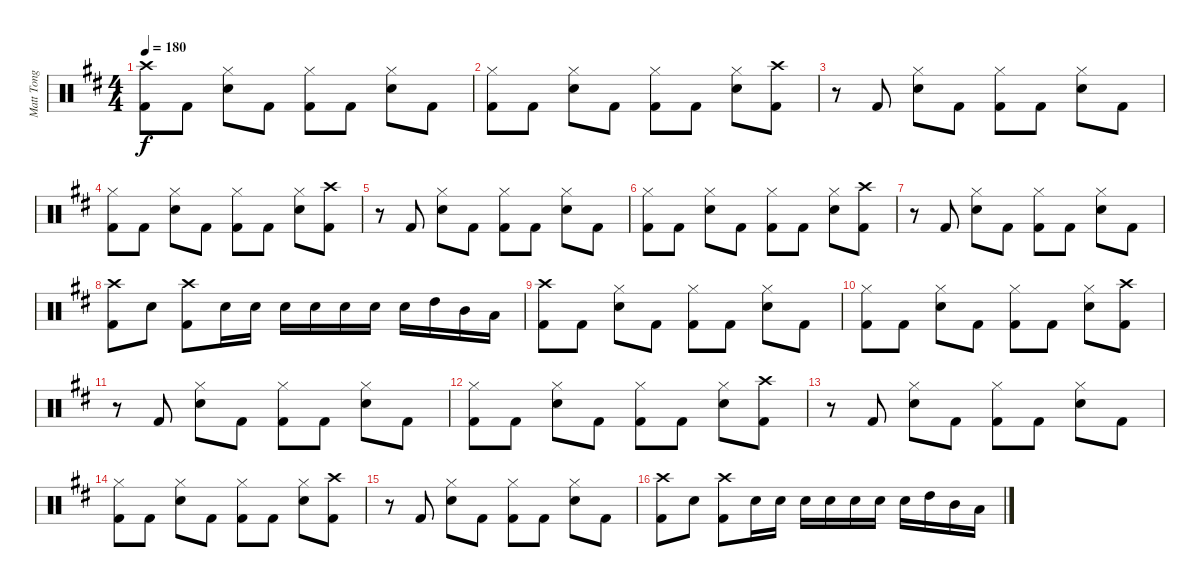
\track ("Matt Tong" "Matt Tong") {instrument percussion}
\staff {score}
\articulation defaults
\ts (4 4)
\tempo 180
\clef neutral
\ks d
("Crash high (hit)" "Kick (hit) 2").8{dy f} "Kick (hit) 2".8 ("Hi-Hat (closed)" "Electric Snare (hit)").8 "Kick (hit) 2".8 ("Hi-Hat (closed)" "Kick (hit) 2").8 "Kick (hit) 2".8 ("Hi-Hat (closed)" "Electric Snare (hit)").8 "Kick (hit) 2".8 |
("Hi-Hat (closed)" "Kick (hit) 2").8 "Kick (hit) 2".8 ("Hi-Hat (closed)" "Electric Snare (hit)").8 "Kick (hit) 2".8 ("Hi-Hat (closed)" "Kick (hit) 2").8 "Kick (hit) 2".8 ("Hi-Hat (closed)" "Electric Snare (hit)").8 ("Crash high (hit)" "Kick (hit) 2").8 |
r.8 "Kick (hit) 2".8 ("Hi-Hat (closed)" "Electric Snare (hit)").8 "Kick (hit) 2".8 ("Hi-Hat (closed)" "Kick (hit) 2").8 "Kick (hit) 2".8 ("Hi-Hat (closed)" "Electric Snare (hit)").8 "Kick (hit) 2".8 |
("Hi-Hat (closed)" "Kick (hit) 2").8 "Kick (hit) 2".8 ("Hi-Hat (closed)" "Electric Snare (hit)").8 "Kick (hit) 2".8 ("Hi-Hat (closed)" "Kick (hit) 2").8 "Kick (hit) 2".8 ("Hi-Hat (closed)" "Electric Snare (hit)").8 ("Crash high (hit)" "Kick (hit) 2").8 |
r.8 "Kick (hit) 2".8 ("Hi-Hat (closed)" "Electric Snare (hit)").8 "Kick (hit) 2".8 ("Hi-Hat (closed)" "Kick (hit) 2").8 "Kick (hit) 2".8 ("Hi-Hat (closed)" "Electric Snare (hit)").8 "Kick (hit) 2".8 |
("Hi-Hat (closed)" "Kick (hit) 2").8 "Kick (hit) 2".8 ("Hi-Hat (closed)" "Electric Snare (hit)").8 "Kick (hit) 2".8 ("Hi-Hat (closed)" "Kick (hit) 2").8 "Kick (hit) 2".8 ("Hi-Hat (closed)" "Electric Snare (hit)").8 ("Crash high (hit)" "Kick (hit) 2").8 |
r.8 "Kick (hit) 2".8 ("Hi-Hat (closed)" "Electric Snare (hit)").8 "Kick (hit) 2".8 ("Hi-Hat (closed)" "Kick (hit) 2").8 "Kick (hit) 2".8 ("Hi-Hat (closed)" "Electric Snare (hit)").8 "Kick (hit) 2".8 |
("Crash high (hit)" "Kick (hit) 2").8 "Electric Snare (hit)".8 ("Crash high (hit)" "Kick (hit) 2").8 "Electric Snare (hit)".16 "Electric Snare (hit)".16 "Electric Snare (hit)".16 "Electric Snare (hit)".16 "Electric Snare (hit)".16 "Electric Snare (hit)".16 "Electric Snare (hit)".16 "High Tom (hit)".16 "Mid Tom (hit)".16 "Low Tom (hit)".16 |
("Crash high (hit)" "Kick (hit) 2").8 "Kick (hit) 2".8 ("Hi-Hat (closed)" "Electric Snare (hit)").8 "Kick (hit) 2".8 ("Hi-Hat (closed)" "Kick (hit) 2").8 "Kick (hit) 2".8 ("Hi-Hat (closed)" "Electric Snare (hit)").8 "Kick (hit) 2".8 |
("Hi-Hat (closed)" "Kick (hit) 2").8 "Kick (hit) 2".8 ("Hi-Hat (closed)" "Electric Snare (hit)").8 "Kick (hit) 2".8 ("Hi-Hat (closed)" "Kick (hit) 2").8 "Kick (hit) 2".8 ("Hi-Hat (closed)" "Electric Snare (hit)").8 ("Crash high (hit)" "Kick (hit) 2").8 |
r.8 "Kick (hit) 2".8 ("Hi-Hat (closed)" "Electric Snare (hit)").8 "Kick (hit) 2".8 ("Hi-Hat (closed)" "Kick (hit) 2").8 "Kick (hit) 2".8 ("Hi-Hat (closed)" "Electric Snare (hit)").8 "Kick (hit) 2".8 |
("Hi-Hat (closed)" "Kick (hit) 2").8 "Kick (hit) 2".8 ("Hi-Hat (closed)" "Electric Snare (hit)").8 "Kick (hit) 2".8 ("Hi-Hat (closed)" "Kick (hit) 2").8 "Kick (hit) 2".8 ("Hi-Hat (closed)" "Electric Snare (hit)").8 ("Crash high (hit)" "Kick (hit) 2").8 |
r.8 "Kick (hit) 2".8 ("Hi-Hat (closed)" "Electric Snare (hit)").8 "Kick (hit) 2".8 ("Hi-Hat (closed)" "Kick (hit) 2").8 "Kick (hit) 2".8 ("Hi-Hat (closed)" "Electric Snare (hit)").8 "Kick (hit) 2".8 |
("Hi-Hat (closed)" "Kick (hit) 2").8 "Kick (hit) 2".8 ("Hi-Hat (closed)" "Electric Snare (hit)").8 "Kick (hit) 2".8 ("Hi-Hat (closed)" "Kick (hit) 2").8 "Kick (hit) 2".8 ("Hi-Hat (closed)" "Electric Snare (hit)").8 ("Crash high (hit)" "Kick (hit) 2").8 |
r.8 "Kick (hit) 2".8 ("Hi-Hat (closed)" "Electric Snare (hit)").8 "Kick (hit) 2".8 ("Hi-Hat (closed)" "Kick (hit) 2").8 "Kick (hit) 2".8 ("Hi-Hat (closed)" "Electric Snare (hit)").8 "Kick (hit) 2".8 |
("Crash high (hit)" "Kick (hit) 2").8 "Electric Snare (hit)".8 ("Crash high (hit)" "Kick (hit) 2").8 "Electric Snare (hit)".16 "Electric Snare (hit)".16 "Electric Snare (hit)".16 "Electric Snare (hit)".16 "Electric Snare (hit)".16 "Electric Snare (hit)".16 "Electric Snare (hit)".16 "High Tom (hit)".16 "Mid Tom (hit)".16 "Low Tom (hit)".16
